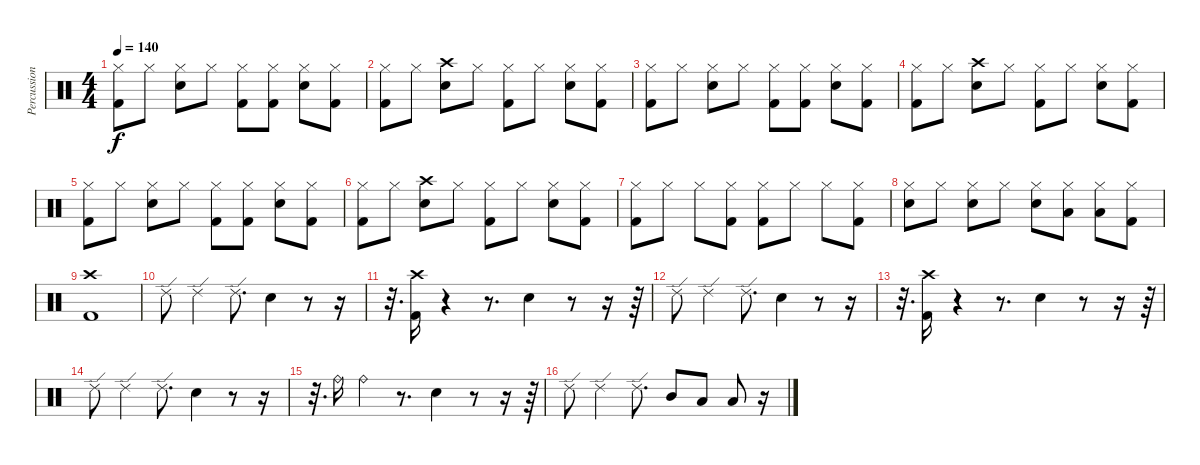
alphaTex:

\track ("Percussion" "Percussion") {instrument percussion}
\staff {score}
\articulation defaults
\ts (4 4)
\tempo 140
\clef neutral
\ks c
("Hi-Hat (closed)" "Kick (hit) 2").8{dy f} "Hi-Hat (closed)".8 ("Hi-Hat (closed)" "Snare (hit) 2").8 "Hi-Hat (closed)".8 ("Hi-Hat (closed)" "Kick (hit) 2").8 ("Hi-Hat (closed)" "Kick (hit) 2").8 ("Hi-Hat (closed)" "Snare (hit) 2").8 ("Hi-Hat (closed)" "Kick (hit) 2").8 |
("Hi-Hat (closed)" "Kick (hit) 2").8 "Hi-Hat (closed)".8 ("Crash high (hit)" "Snare (hit) 2").8 "Hi-Hat (closed)".8 ("Hi-Hat (closed)" "Kick (hit) 2").8 "Hi-Hat (closed)".8 ("Hi-Hat (closed)" "Snare (hit) 2").8 ("Hi-Hat (closed)" "Kick (hit) 2").8 |
("Hi-Hat (closed)" "Kick (hit) 2").8 "Hi-Hat (closed)".8 ("Hi-Hat (closed)" "Snare (hit) 2").8 "Hi-Hat (closed)".8 ("Hi-Hat (closed)" "Kick (hit) 2").8 ("Hi-Hat (closed)" "Kick (hit) 2").8 ("Hi-Hat (closed)" "Snare (hit) 2").8 ("Hi-Hat (closed)" "Kick (hit) 2").8 |
("Hi-Hat (closed)" "Kick (hit) 2").8 "Hi-Hat (closed)".8 ("Crash high (hit)" "Snare (hit) 2").8 "Hi-Hat (closed)".8 ("Hi-Hat (closed)" "Kick (hit) 2").8 "Hi-Hat (closed)".8 ("Hi-Hat (closed)" "Snare (hit) 2").8 ("Hi-Hat (closed)" "Kick (hit) 2").8 |
("Hi-Hat (closed)" "Kick (hit) 2").8 "Hi-Hat (closed)".8 ("Hi-Hat (closed)" "Snare (hit) 2").8 "Hi-Hat (closed)".8 ("Hi-Hat (closed)" "Kick (hit) 2").8 ("Hi-Hat (closed)" "Kick (hit) 2").8 ("Hi-Hat (closed)" "Snare (hit) 2").8 ("Hi-Hat (closed)" "Kick (hit) 2").8 |
("Hi-Hat (closed)" "Kick (hit) 2").8 "Hi-Hat (closed)".8 ("Crash high (hit)" "Snare (hit) 2").8 "Hi-Hat (closed)".8 ("Hi-Hat (closed)" "Kick (hit) 2").8 "Hi-Hat (closed)".8 ("Hi-Hat (closed)" "Snare (hit) 2").8 ("Hi-Hat (closed)" "Kick (hit) 2").8 |
("Hi-Hat (closed)" "Kick (hit) 2").8 "Hi-Hat (closed)".8 "Hi-Hat (closed)".8 ("Hi-Hat (closed)" "Kick (hit) 2").8 ("Hi-Hat (closed)" "Kick (hit) 2").8 "Hi-Hat (closed)".8 "Hi-Hat (closed)".8 ("Hi-Hat (closed)" "Kick (hit) 2").8 |
("Hi-Hat (closed)" "Snare (hit) 2").8 "Hi-Hat (closed)".8 ("Hi-Hat (closed)" "Snare (hit) 2").8 "Hi-Hat (closed)".8 ("Hi-Hat (closed)" "Snare (hit) 2").8 ("Hi-Hat (closed)" "Low Tom (hit)").8 ("Hi-Hat (closed)" "Low Tom (hit)").8 ("Hi-Hat (closed)" "Kick (hit) 2").8 |
("Crash high (hit)" "Kick (hit) 2").1 |
"Ride (edge) 2".8 "Ride (edge) 2".4 "Ride (edge) 2".8{d} "Snare (hit) 2".4 r.8 r.16 |
r.32{d} ("Crash high (hit)" "Kick (hit) 2").16 r.4 r.8{d} "Snare (hit) 2".4 r.8 r.16 r.64 |
"Ride (edge) 2".8 "Ride (edge) 2".4 "Ride (edge) 2".8{d} "Snare (hit) 2".4 r.8 r.16 |
r.32{d} ("Crash high (hit)" "Kick (hit) 2").16 r.4 r.8{d} "Snare (hit) 2".4 r.8 r.16 r.64 |
"Ride (edge) 2".8 "Ride (edge) 2".4 "Ride (edge) 2".8{d} "Snare (hit) 2".4 r.8 r.16 |
r.32{d} "Ride (bell)".16 "Ride (bell)".4 r.8{d} "Snare (hit) 2".4 r.8 r.16 r.64 |
"Ride (edge) 2".8 "Ride (edge) 2".4 "Ride (edge) 2".8{d} "Mid Tom (hit)".8 "Low Tom (hit)".8 "Low Tom (hit)".8 r.16
